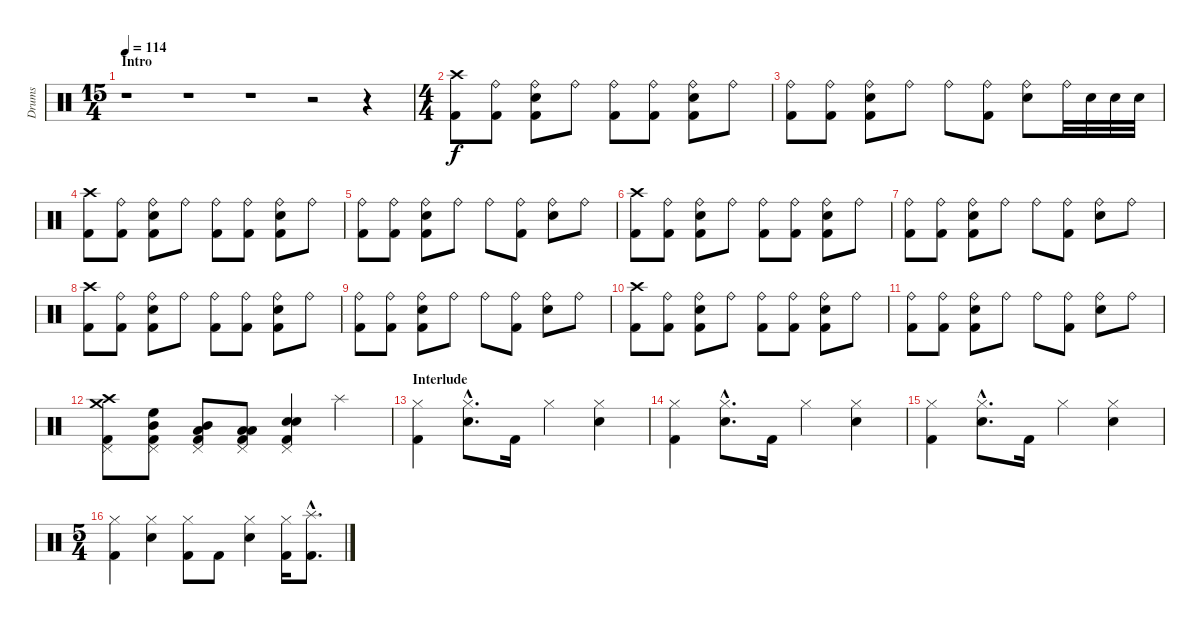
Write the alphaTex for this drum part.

\track ("Drums" "Drums") {instrument percussion}
\staff {score}
\articulation defaults
\ts (15 4)
\section ("" "Intro")
\tempo 114
\clef neutral
\ks c
r.1{dy f} r.1 r.1 r.2 r.4 |
\ts (4 4)
("Crash high (hit)" "Kick (hit) 2").8{volume 13 balance 8} ("Ride (bell)" "Kick (hit) 2").8 ("Ride (bell)" "Snare (hit) 2" "Kick (hit) 2").8 "Ride (bell)".8 ("Ride (bell)" "Kick (hit) 2").8 ("Ride (bell)" "Kick (hit) 2").8 ("Ride (bell)" "Snare (hit) 2" "Kick (hit) 2").8 "Ride (bell)".8 |
("Ride (bell)" "Kick (hit) 2").8 ("Ride (bell)" "Kick (hit) 2").8 ("Ride (bell)" "Snare (hit) 2" "Kick (hit) 2").8 "Ride (bell)".8 "Ride (bell)".8 ("Ride (bell)" "Kick (hit) 2").8 ("Ride (bell)" "Snare (hit) 2").8 "Ride (bell)".32 "Snare (hit) 2".32 "Snare (hit) 2".32 "Snare (hit) 2".32 |
("Crash high (hit)" "Kick (hit) 2").8 ("Ride (bell)" "Kick (hit) 2").8 ("Ride (bell)" "Snare (hit) 2" "Kick (hit) 2").8 "Ride (bell)".8 ("Ride (bell)" "Kick (hit) 2").8 ("Ride (bell)" "Kick (hit) 2").8 ("Ride (bell)" "Snare (hit) 2" "Kick (hit) 2").8 "Ride (bell)".8 |
("Ride (bell)" "Kick (hit) 2").8 ("Ride (bell)" "Kick (hit) 2").8 ("Ride (bell)" "Snare (hit) 2" "Kick (hit) 2").8 "Ride (bell)".8 "Ride (bell)".8 ("Ride (bell)" "Kick (hit) 2").8 ("Ride (bell)" "Snare (hit) 2").8 "Ride (bell)".8 |
("Crash high (hit)" "Kick (hit) 2").8 ("Ride (bell)" "Kick (hit) 2").8 ("Ride (bell)" "Snare (hit) 2" "Kick (hit) 2").8 "Ride (bell)".8 ("Ride (bell)" "Kick (hit) 2").8 ("Ride (bell)" "Kick (hit) 2").8 ("Ride (bell)" "Snare (hit) 2" "Kick (hit) 2").8 "Ride (bell)".8 |
("Ride (bell)" "Kick (hit) 2").8 ("Ride (bell)" "Kick (hit) 2").8 ("Ride (bell)" "Snare (hit) 2" "Kick (hit) 2").8 "Ride (bell)".8 "Ride (bell)".8 ("Ride (bell)" "Kick (hit) 2").8 ("Ride (bell)" "Snare (hit) 2").8 "Ride (bell)".8 |
("Crash high (hit)" "Kick (hit) 2").8 ("Ride (bell)" "Kick (hit) 2").8 ("Ride (bell)" "Snare (hit) 2" "Kick (hit) 2").8 "Ride (bell)".8 ("Ride (bell)" "Kick (hit) 2").8 ("Ride (bell)" "Kick (hit) 2").8 ("Ride (bell)" "Snare (hit) 2" "Kick (hit) 2").8 "Ride (bell)".8 |
("Ride (bell)" "Kick (hit) 2").8 ("Ride (bell)" "Kick (hit) 2").8 ("Ride (bell)" "Snare (hit) 2" "Kick (hit) 2").8 "Ride (bell)".8 "Ride (bell)".8 ("Ride (bell)" "Kick (hit) 2").8 ("Ride (bell)" "Snare (hit) 2").8 "Ride (bell)".8 |
("Crash high (hit)" "Kick (hit) 2").8 ("Ride (bell)" "Kick (hit) 2").8 ("Ride (bell)" "Snare (hit) 2" "Kick (hit) 2").8 "Ride (bell)".8 ("Ride (bell)" "Kick (hit) 2").8 ("Ride (bell)" "Kick (hit) 2").8 ("Ride (bell)" "Snare (hit) 2" "Kick (hit) 2").8 "Ride (bell)".8 |
("Ride (bell)" "Kick (hit) 2").8 ("Ride (bell)" "Kick (hit) 2").8 ("Ride (bell)" "Snare (hit) 2" "Kick (hit) 2").8 "Ride (bell)".8 "Ride (bell)".8 ("Ride (bell)" "Kick (hit) 2").8 ("Ride (bell)" "Snare (hit) 2").8 "Ride (bell)".8 |
("Crash medium (hit)" "Crash high (hit)" "Pedal Hi-Hat (hit)" "Kick (hit) 2").8 ("Pedal Hi-Hat (hit)" "High Floor Tom (hit)" "Mid Tom (hit)" "Kick (hit) 2").8 ("Pedal Hi-Hat (hit)" "Mid Tom (hit)" "Low Tom (hit)" "Kick (hit) 2").8 ("Pedal Hi-Hat (hit)" "Low Tom (hit)" "Low Floor Tom (hit)" "Kick (hit) 2").8 ("Pedal Hi-Hat (hit)" "Snare (hit) 2" "Snare (hit) 2" "Kick (hit) 2").4 "Splash (hit)".4 |
\section ("" "Interlude")
("Hi-Hat (closed)" "Kick (hit) 2").4 ("Hi-Hat (closed)"{hac} "Snare (hit) 2"{hac}).8{d} "Kick (hit) 2".16 "Hi-Hat (closed)".4 ("Hi-Hat (closed)" "Snare (hit) 2").4 |
("Hi-Hat (closed)" "Kick (hit) 2").4 ("Hi-Hat (closed)"{hac} "Snare (hit) 2"{hac}).8{d} "Kick (hit) 2".16 "Hi-Hat (closed)".4 ("Hi-Hat (closed)" "Snare (hit) 2").4 |
("Hi-Hat (closed)" "Kick (hit) 2").4 ("Hi-Hat (closed)"{hac} "Snare (hit) 2"{hac}).8{d} "Kick (hit) 2".16 "Hi-Hat (closed)".4 ("Hi-Hat (closed)" "Snare (hit) 2").4 |
\ts (5 4)
("Hi-Hat (closed)" "Kick (hit) 2").4 ("Hi-Hat (closed)" "Snare (hit) 2").4 ("Hi-Hat (closed)" "Kick (hit) 2").8 "Kick (hit) 2".8 ("Hi-Hat (closed)" "Snare (hit) 2").4 ("Hi-Hat (closed)" "Kick (hit) 2").16 ("Splash (hit)"{hac} "Kick (hit) 2"{hac}).8{d}
